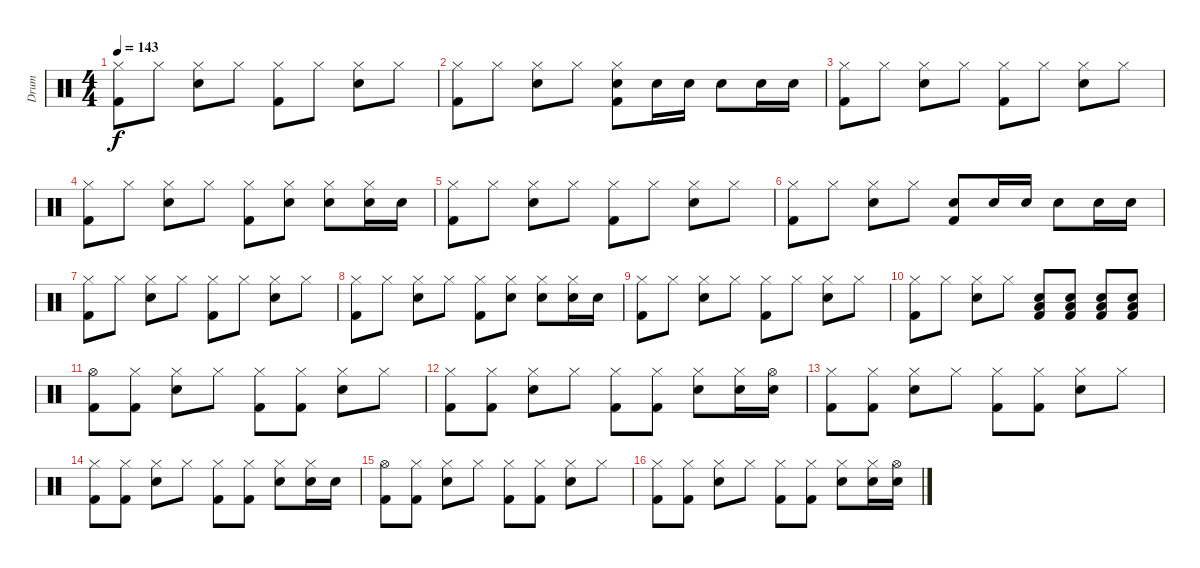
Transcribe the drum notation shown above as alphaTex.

\track ("Drum" "Drum") {instrument percussion}
\staff {score}
\articulation defaults
\ts (4 4)
\tempo 143
\clef neutral
\ks c
("Hi-Hat (closed)" "Kick (hit) 2").8{dy f} "Hi-Hat (closed)".8 ("Hi-Hat (closed)" "Electric Snare (hit)").8 "Hi-Hat (closed)".8 ("Hi-Hat (closed)" "Kick (hit) 2").8 "Hi-Hat (closed)".8 ("Hi-Hat (closed)" "Electric Snare (hit)").8 "Hi-Hat (closed)".8 |
("Hi-Hat (closed)" "Kick (hit) 2").8 "Hi-Hat (closed)".8 ("Hi-Hat (closed)" "Electric Snare (hit)").8 "Hi-Hat (closed)".8 ("Hi-Hat (closed)" "Electric Snare (hit)" "Kick (hit) 2").8 "Electric Snare (hit)".16 "Electric Snare (hit)".16 "Electric Snare (hit)".8 "Electric Snare (hit)".16 "Electric Snare (hit)".16 |
("Hi-Hat (closed)" "Kick (hit) 2").8 "Hi-Hat (closed)".8 ("Hi-Hat (closed)" "Electric Snare (hit)").8 "Hi-Hat (closed)".8 ("Hi-Hat (closed)" "Kick (hit) 2").8 "Hi-Hat (closed)".8 ("Hi-Hat (closed)" "Electric Snare (hit)").8 "Hi-Hat (closed)".8 |
("Hi-Hat (closed)" "Kick (hit) 2").8 "Hi-Hat (closed)".8 ("Hi-Hat (closed)" "Electric Snare (hit)").8 "Hi-Hat (closed)".8 ("Hi-Hat (closed)" "Kick (hit) 2").8 ("Hi-Hat (closed)" "Electric Snare (hit)").8 ("Hi-Hat (closed)" "Electric Snare (hit)").8 ("Hi-Hat (closed)" "Electric Snare (hit)").16 "Electric Snare (hit)".16 |
("Hi-Hat (closed)" "Kick (hit) 2").8 "Hi-Hat (closed)".8 ("Hi-Hat (closed)" "Electric Snare (hit)").8 "Hi-Hat (closed)".8 ("Hi-Hat (closed)" "Kick (hit) 2").8 "Hi-Hat (closed)".8 ("Hi-Hat (closed)" "Electric Snare (hit)").8 "Hi-Hat (closed)".8 |
("Hi-Hat (closed)" "Kick (hit) 2").8 "Hi-Hat (closed)".8 ("Hi-Hat (closed)" "Electric Snare (hit)").8 "Hi-Hat (closed)".8 ("Electric Snare (hit)" "Kick (hit) 2").8 "Electric Snare (hit)".16 "Electric Snare (hit)".16 "Electric Snare (hit)".8 "Electric Snare (hit)".16 "Electric Snare (hit)".16 |
("Hi-Hat (closed)" "Kick (hit) 2").8 "Hi-Hat (closed)".8 ("Hi-Hat (closed)" "Electric Snare (hit)").8 "Hi-Hat (closed)".8 ("Hi-Hat (closed)" "Kick (hit) 2").8 "Hi-Hat (closed)".8 ("Hi-Hat (closed)" "Electric Snare (hit)").8 "Hi-Hat (closed)".8 |
("Hi-Hat (closed)" "Kick (hit) 2").8 "Hi-Hat (closed)".8 ("Hi-Hat (closed)" "Electric Snare (hit)").8 "Hi-Hat (closed)".8 ("Hi-Hat (closed)" "Kick (hit) 2").8 ("Hi-Hat (closed)" "Electric Snare (hit)").8 ("Hi-Hat (closed)" "Electric Snare (hit)").8 ("Hi-Hat (closed)" "Electric Snare (hit)").16 "Electric Snare (hit)".16 |
("Hi-Hat (closed)" "Kick (hit) 2").8 "Hi-Hat (closed)".8 ("Hi-Hat (closed)" "Electric Snare (hit)").8 "Hi-Hat (closed)".8 ("Hi-Hat (closed)" "Kick (hit) 2").8 "Hi-Hat (closed)".8 ("Hi-Hat (closed)" "Electric Snare (hit)").8 "Hi-Hat (closed)".8 |
("Hi-Hat (closed)" "Kick (hit) 2").8 "Hi-Hat (closed)".8 ("Hi-Hat (closed)" "Electric Snare (hit)").8 "Hi-Hat (closed)".8 ("Low Tom (hit)" "Electric Snare (hit)" "Kick (hit) 2").8 ("Low Tom (hit)" "Electric Snare (hit)" "Kick (hit) 2").8 ("Low Tom (hit)" "Electric Snare (hit)" "Kick (hit) 2").8 ("Low Tom (hit)" "Electric Snare (hit)" "Kick (hit) 2").8 |
("Hi-Hat (open)" "Kick (hit) 2").8 ("Hi-Hat (closed)" "Kick (hit) 2").8 ("Hi-Hat (closed)" "Electric Snare (hit)").8 "Hi-Hat (closed)".8 ("Hi-Hat (closed)" "Kick (hit) 2").8 ("Hi-Hat (closed)" "Kick (hit) 2").8 ("Hi-Hat (closed)" "Electric Snare (hit)").8 "Hi-Hat (closed)".8 |
("Hi-Hat (closed)" "Kick (hit) 2").8 ("Hi-Hat (closed)" "Kick (hit) 2").8 ("Hi-Hat (closed)" "Electric Snare (hit)").8 "Hi-Hat (closed)".8 ("Hi-Hat (closed)" "Kick (hit) 2").8 ("Hi-Hat (closed)" "Kick (hit) 2").8 ("Hi-Hat (closed)" "Electric Snare (hit)").8 ("Hi-Hat (closed)" "Electric Snare (hit)").16 ("Hi-Hat (open)" "Electric Snare (hit)").16 |
("Hi-Hat (closed)" "Kick (hit) 2").8 ("Hi-Hat (closed)" "Kick (hit) 2").8 ("Hi-Hat (closed)" "Electric Snare (hit)").8 "Hi-Hat (closed)".8 ("Hi-Hat (closed)" "Kick (hit) 2").8 ("Hi-Hat (closed)" "Kick (hit) 2").8 ("Hi-Hat (closed)" "Electric Snare (hit)").8 "Hi-Hat (closed)".8 |
("Hi-Hat (closed)" "Kick (hit) 2").8 ("Hi-Hat (closed)" "Kick (hit) 2").8 ("Hi-Hat (closed)" "Electric Snare (hit)").8 "Hi-Hat (closed)".8 ("Hi-Hat (closed)" "Kick (hit) 2").8 ("Hi-Hat (closed)" "Kick (hit) 2").8 ("Hi-Hat (closed)" "Electric Snare (hit)").8 ("Hi-Hat (closed)" "Electric Snare (hit)").16 "Electric Snare (hit)".16 |
("Hi-Hat (open)" "Kick (hit) 2").8 ("Hi-Hat (closed)" "Kick (hit) 2").8 ("Hi-Hat (closed)" "Electric Snare (hit)").8 "Hi-Hat (closed)".8 ("Hi-Hat (closed)" "Kick (hit) 2").8 ("Hi-Hat (closed)" "Kick (hit) 2").8 ("Hi-Hat (closed)" "Electric Snare (hit)").8 "Hi-Hat (closed)".8 |
("Hi-Hat (closed)" "Kick (hit) 2").8 ("Hi-Hat (closed)" "Kick (hit) 2").8 ("Hi-Hat (closed)" "Electric Snare (hit)").8 "Hi-Hat (closed)".8 ("Hi-Hat (closed)" "Kick (hit) 2").8 ("Hi-Hat (closed)" "Kick (hit) 2").8 ("Hi-Hat (closed)" "Electric Snare (hit)").8 ("Hi-Hat (closed)" "Electric Snare (hit)").16 ("Hi-Hat (open)" "Electric Snare (hit)").16
